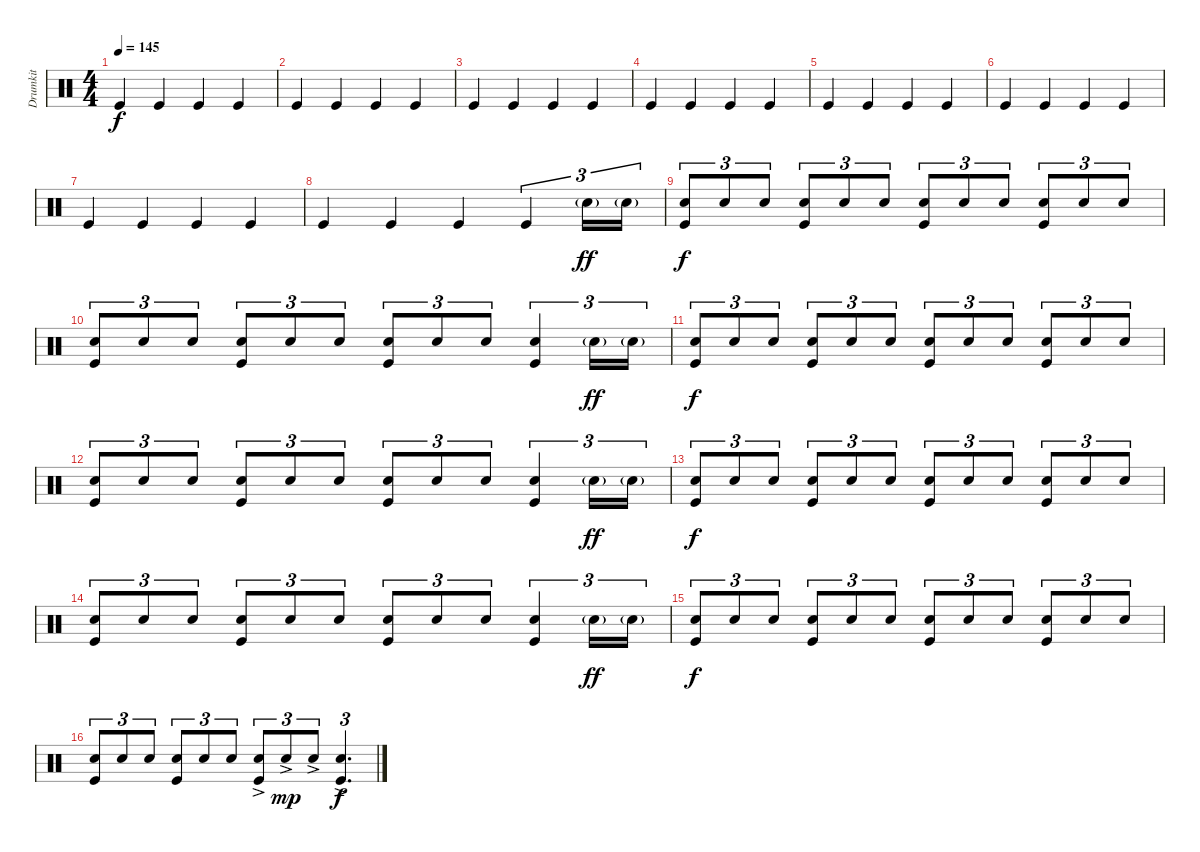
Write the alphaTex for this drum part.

\track ("Drumkit" "Drumkit") {instrument percussion}
\staff {score}
\articulation defaults
\ts (4 4)
\tempo 145
\clef neutral
\ks c "Kick (hit)".4{dy f} "Kick (hit)".4 "Kick (hit)".4 "Kick (hit)".4
|
"Kick (hit)".4 "Kick (hit)".4 "Kick (hit)".4 "Kick (hit)".4 |
"Kick (hit)".4 "Kick (hit)".4 "Kick (hit)".4 "Kick (hit)".4 |
"Kick (hit)".4 "Kick (hit)".4 "Kick (hit)".4 "Kick (hit)".4 |
"Kick (hit)".4 "Kick (hit)".4 "Kick (hit)".4 "Kick (hit)".4 |
"Kick (hit)".4 "Kick (hit)".4 "Kick (hit)".4 "Kick (hit)".4 |
"Kick (hit)".4 "Kick (hit)".4 "Kick (hit)".4 "Kick (hit)".4 |
"Kick (hit)".4 "Kick (hit)".4 "Kick (hit)".4 "Kick (hit)".4{tu (3 2)} "Snare (hit) 2"{g}.16{tu (3 2) dy ff} "Snare (hit) 2"{g}.16{tu (3 2)} |
("Snare (hit) 2" "Kick (hit)").8{tu (3 2) dy f} "Snare (hit) 2".8{tu (3 2)} "Snare (hit) 2".8{tu (3 2)} ("Snare (hit) 2" "Kick (hit)").8{tu (3 2)} "Snare (hit) 2".8{tu (3 2)} "Snare (hit) 2".8{tu (3 2)} ("Snare (hit) 2" "Kick (hit)").8{tu (3 2)} "Snare (hit) 2".8{tu (3 2)} "Snare (hit) 2".8{tu (3 2)} ("Snare (hit) 2" "Kick (hit)").8{tu (3 2)} "Snare (hit) 2".8{tu (3 2)} "Snare (hit) 2".8{tu (3 2)} |
("Snare (hit) 2" "Kick (hit)").8{tu (3 2)} "Snare (hit) 2".8{tu (3 2)} "Snare (hit) 2".8{tu (3 2)} ("Snare (hit) 2" "Kick (hit)").8{tu (3 2)} "Snare (hit) 2".8{tu (3 2)} "Snare (hit) 2".8{tu (3 2)} ("Snare (hit) 2" "Kick (hit)").8{tu (3 2)} "Snare (hit) 2".8{tu (3 2)} "Snare (hit) 2".8{tu (3 2)} ("Snare (hit) 2" "Kick (hit)").4{tu (3 2)} "Snare (hit) 2"{g}.16{tu (3 2) dy ff} "Snare (hit) 2"{g}.16{tu (3 2)} |
("Snare (hit) 2" "Kick (hit)").8{tu (3 2) dy f} "Snare (hit) 2".8{tu (3 2)} "Snare (hit) 2".8{tu (3 2)} ("Snare (hit) 2" "Kick (hit)").8{tu (3 2)} "Snare (hit) 2".8{tu (3 2)} "Snare (hit) 2".8{tu (3 2)} ("Snare (hit) 2" "Kick (hit)").8{tu (3 2)} "Snare (hit) 2".8{tu (3 2)} "Snare (hit) 2".8{tu (3 2)} ("Snare (hit) 2" "Kick (hit)").8{tu (3 2)} "Snare (hit) 2".8{tu (3 2)} "Snare (hit) 2".8{tu (3 2)} |
("Snare (hit) 2" "Kick (hit)").8{tu (3 2)} "Snare (hit) 2".8{tu (3 2)} "Snare (hit) 2".8{tu (3 2)} ("Snare (hit) 2" "Kick (hit)").8{tu (3 2)} "Snare (hit) 2".8{tu (3 2)} "Snare (hit) 2".8{tu (3 2)} ("Snare (hit) 2" "Kick (hit)").8{tu (3 2)} "Snare (hit) 2".8{tu (3 2)} "Snare (hit) 2".8{tu (3 2)} ("Snare (hit) 2" "Kick (hit)").4{tu (3 2)} "Snare (hit) 2"{g}.16{tu (3 2) dy ff} "Snare (hit) 2"{g}.16{tu (3 2)} |
("Snare (hit) 2" "Kick (hit)").8{tu (3 2) dy f} "Snare (hit) 2".8{tu (3 2)} "Snare (hit) 2".8{tu (3 2)} ("Snare (hit) 2" "Kick (hit)").8{tu (3 2)} "Snare (hit) 2".8{tu (3 2)} "Snare (hit) 2".8{tu (3 2)} ("Snare (hit) 2" "Kick (hit)").8{tu (3 2)} "Snare (hit) 2".8{tu (3 2)} "Snare (hit) 2".8{tu (3 2)} ("Snare (hit) 2" "Kick (hit)").8{tu (3 2)} "Snare (hit) 2".8{tu (3 2)} "Snare (hit) 2".8{tu (3 2)} |
("Snare (hit) 2" "Kick (hit)").8{tu (3 2)} "Snare (hit) 2".8{tu (3 2)} "Snare (hit) 2".8{tu (3 2)} ("Snare (hit) 2" "Kick (hit)").8{tu (3 2)} "Snare (hit) 2".8{tu (3 2)} "Snare (hit) 2".8{tu (3 2)} ("Snare (hit) 2" "Kick (hit)").8{tu (3 2)} "Snare (hit) 2".8{tu (3 2)} "Snare (hit) 2".8{tu (3 2)} ("Snare (hit) 2" "Kick (hit)").4{tu (3 2)} "Snare (hit) 2"{g}.16{tu (3 2) dy ff} "Snare (hit) 2"{g}.16{tu (3 2)} |
("Snare (hit) 2" "Kick (hit)").8{tu (3 2) dy f} "Snare (hit) 2".8{tu (3 2)} "Snare (hit) 2".8{tu (3 2)} ("Snare (hit) 2" "Kick (hit)").8{tu (3 2)} "Snare (hit) 2".8{tu (3 2)} "Snare (hit) 2".8{tu (3 2)} ("Snare (hit) 2" "Kick (hit)").8{tu (3 2)} "Snare (hit) 2".8{tu (3 2)} "Snare (hit) 2".8{tu (3 2)} ("Snare (hit) 2" "Kick (hit)").8{tu (3 2)} "Snare (hit) 2".8{tu (3 2)} "Snare (hit) 2".8{tu (3 2)} |
("Snare (hit) 2" "Kick (hit)").8{tu (3 2)} "Snare (hit) 2".8{tu (3 2)} "Snare (hit) 2".8{tu (3 2)} ("Snare (hit) 2" "Kick (hit)").8{tu (3 2)} "Snare (hit) 2".8{tu (3 2)} "Snare (hit) 2".8{tu (3 2)} ("Snare (hit) 2"{ac} "Kick (hit)").8{tu (3 2)} "Snare (hit) 2"{ac}.8{tu (3 2) dy mp} "Snare (hit) 2"{ac}.8{tu (3 2)} ("Snare (hit) 2"{ac} "Kick (hit)").4{d tu (3 2) dy f}
